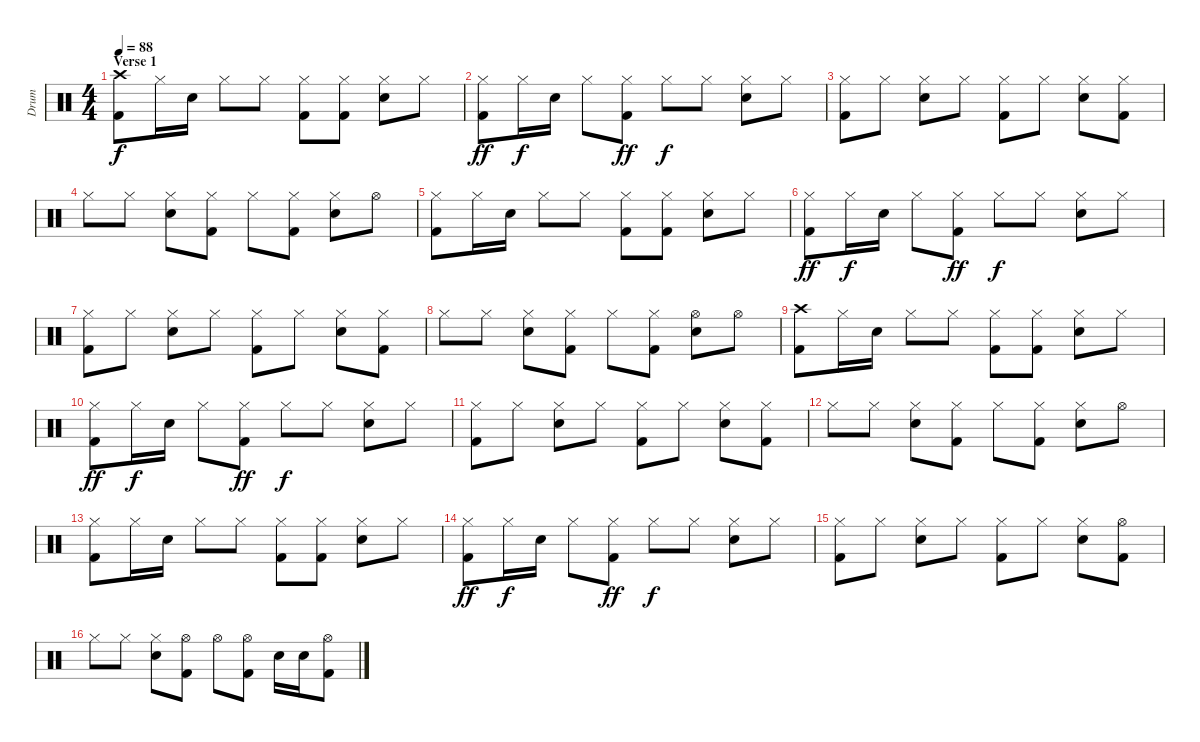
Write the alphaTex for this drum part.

\track ("Drum" "Drum") {instrument percussion}
\staff {score}
\articulation defaults
\ts (4 4)
\section ("" "Verse 1")
\tempo 88
\clef neutral
\ks c
("Crash high (hit)" "Kick (hit) 2").8{dy f} "Hi-Hat (closed)".16 "Electric Snare (hit)".16 "Hi-Hat (closed)".8 "Hi-Hat (closed)".8 ("Hi-Hat (closed)" "Kick (hit) 2").8 ("Hi-Hat (closed)" "Kick (hit) 2").8 ("Hi-Hat (closed)" "Electric Snare (hit)").8 "Hi-Hat (closed)".8 |
("Hi-Hat (closed)" "Kick (hit) 2").8{dy ff} "Hi-Hat (closed)".16{dy f} "Electric Snare (hit)".16 "Hi-Hat (closed)".8 ("Hi-Hat (closed)" "Kick (hit) 2").8{dy ff} "Hi-Hat (closed)".8{dy f} "Hi-Hat (closed)".8 ("Hi-Hat (closed)" "Electric Snare (hit)").8 "Hi-Hat (closed)".8 |
("Hi-Hat (closed)" "Kick (hit) 2").8 "Hi-Hat (closed)".8 ("Hi-Hat (closed)" "Electric Snare (hit)").8 "Hi-Hat (closed)".8 ("Hi-Hat (closed)" "Kick (hit) 2").8 "Hi-Hat (closed)".8 ("Hi-Hat (closed)" "Electric Snare (hit)").8 ("Hi-Hat (closed)" "Kick (hit) 2").8 |
"Hi-Hat (closed)".8 "Hi-Hat (closed)".8 ("Hi-Hat (closed)" "Electric Snare (hit)").8 ("Hi-Hat (closed)" "Kick (hit) 2").8 "Hi-Hat (closed)".8 ("Hi-Hat (closed)" "Kick (hit) 2").8 ("Hi-Hat (closed)" "Electric Snare (hit)").8 "Hi-Hat (open)".8 |
("Hi-Hat (closed)" "Kick (hit) 2").8 "Hi-Hat (closed)".16 "Electric Snare (hit)".16 "Hi-Hat (closed)".8 "Hi-Hat (closed)".8 ("Hi-Hat (closed)" "Kick (hit) 2").8 ("Hi-Hat (closed)" "Kick (hit) 2").8 ("Hi-Hat (closed)" "Electric Snare (hit)").8 "Hi-Hat (closed)".8 |
("Hi-Hat (closed)" "Kick (hit) 2").8{dy ff} "Hi-Hat (closed)".16{dy f} "Electric Snare (hit)".16 "Hi-Hat (closed)".8 ("Hi-Hat (closed)" "Kick (hit) 2").8{dy ff} "Hi-Hat (closed)".8{dy f} "Hi-Hat (closed)".8 ("Hi-Hat (closed)" "Electric Snare (hit)").8 "Hi-Hat (closed)".8 |
("Hi-Hat (closed)" "Kick (hit) 2").8 "Hi-Hat (closed)".8 ("Hi-Hat (closed)" "Electric Snare (hit)").8 "Hi-Hat (closed)".8 ("Hi-Hat (closed)" "Kick (hit) 2").8 "Hi-Hat (closed)".8 ("Hi-Hat (closed)" "Electric Snare (hit)").8 ("Hi-Hat (closed)" "Kick (hit) 2").8 |
"Hi-Hat (closed)".8 "Hi-Hat (closed)".8 ("Hi-Hat (closed)" "Electric Snare (hit)").8 ("Hi-Hat (closed)" "Kick (hit) 2").8 "Hi-Hat (closed)".8 ("Hi-Hat (closed)" "Kick (hit) 2").8 ("Hi-Hat (open)" "Electric Snare (hit)").8 "Hi-Hat (open)".8 |
("Crash high (hit)" "Kick (hit) 2").8 "Hi-Hat (closed)".16 "Electric Snare (hit)".16 "Hi-Hat (closed)".8 "Hi-Hat (closed)".8 ("Hi-Hat (closed)" "Kick (hit) 2").8 ("Hi-Hat (closed)" "Kick (hit) 2").8 ("Hi-Hat (closed)" "Electric Snare (hit)").8 "Hi-Hat (closed)".8 |
("Hi-Hat (closed)" "Kick (hit) 2").8{dy ff} "Hi-Hat (closed)".16{dy f} "Electric Snare (hit)".16 "Hi-Hat (closed)".8 ("Hi-Hat (closed)" "Kick (hit) 2").8{dy ff} "Hi-Hat (closed)".8{dy f} "Hi-Hat (closed)".8 ("Hi-Hat (closed)" "Electric Snare (hit)").8 "Hi-Hat (closed)".8 |
("Hi-Hat (closed)" "Kick (hit) 2").8 "Hi-Hat (closed)".8 ("Hi-Hat (closed)" "Electric Snare (hit)").8 "Hi-Hat (closed)".8 ("Hi-Hat (closed)" "Kick (hit) 2").8 "Hi-Hat (closed)".8 ("Hi-Hat (closed)" "Electric Snare (hit)").8 ("Hi-Hat (closed)" "Kick (hit) 2").8 |
"Hi-Hat (closed)".8 "Hi-Hat (closed)".8 ("Hi-Hat (closed)" "Electric Snare (hit)").8 ("Hi-Hat (closed)" "Kick (hit) 2").8 "Hi-Hat (closed)".8 ("Hi-Hat (closed)" "Kick (hit) 2").8 ("Hi-Hat (closed)" "Electric Snare (hit)").8 "Hi-Hat (open)".8 |
("Hi-Hat (closed)" "Kick (hit) 2").8 "Hi-Hat (closed)".16 "Electric Snare (hit)".16 "Hi-Hat (closed)".8 "Hi-Hat (closed)".8 ("Hi-Hat (closed)" "Kick (hit) 2").8 ("Hi-Hat (closed)" "Kick (hit) 2").8 ("Hi-Hat (closed)" "Electric Snare (hit)").8 "Hi-Hat (closed)".8 |
("Hi-Hat (closed)" "Kick (hit) 2").8{dy ff} "Hi-Hat (closed)".16{dy f} "Electric Snare (hit)".16 "Hi-Hat (closed)".8 ("Hi-Hat (closed)" "Kick (hit) 2").8{dy ff} "Hi-Hat (closed)".8{dy f} "Hi-Hat (closed)".8 ("Hi-Hat (closed)" "Electric Snare (hit)").8 "Hi-Hat (closed)".8 |
("Hi-Hat (closed)" "Kick (hit) 2").8 "Hi-Hat (closed)".8 ("Hi-Hat (closed)" "Electric Snare (hit)").8 "Hi-Hat (closed)".8 ("Hi-Hat (closed)" "Kick (hit) 2").8 "Hi-Hat (closed)".8 ("Hi-Hat (closed)" "Electric Snare (hit)").8 ("Hi-Hat (open)" "Kick (hit) 2").8 |
"Hi-Hat (closed)".8 "Hi-Hat (closed)".8 ("Hi-Hat (closed)" "Electric Snare (hit)").8 ("Hi-Hat (open)" "Kick (hit) 2").8 "Hi-Hat (open)".8 ("Hi-Hat (open)" "Kick (hit) 2").8 "Electric Snare (hit)".16 "Electric Snare (hit)".16 ("Hi-Hat (open)" "Kick (hit) 2").8
